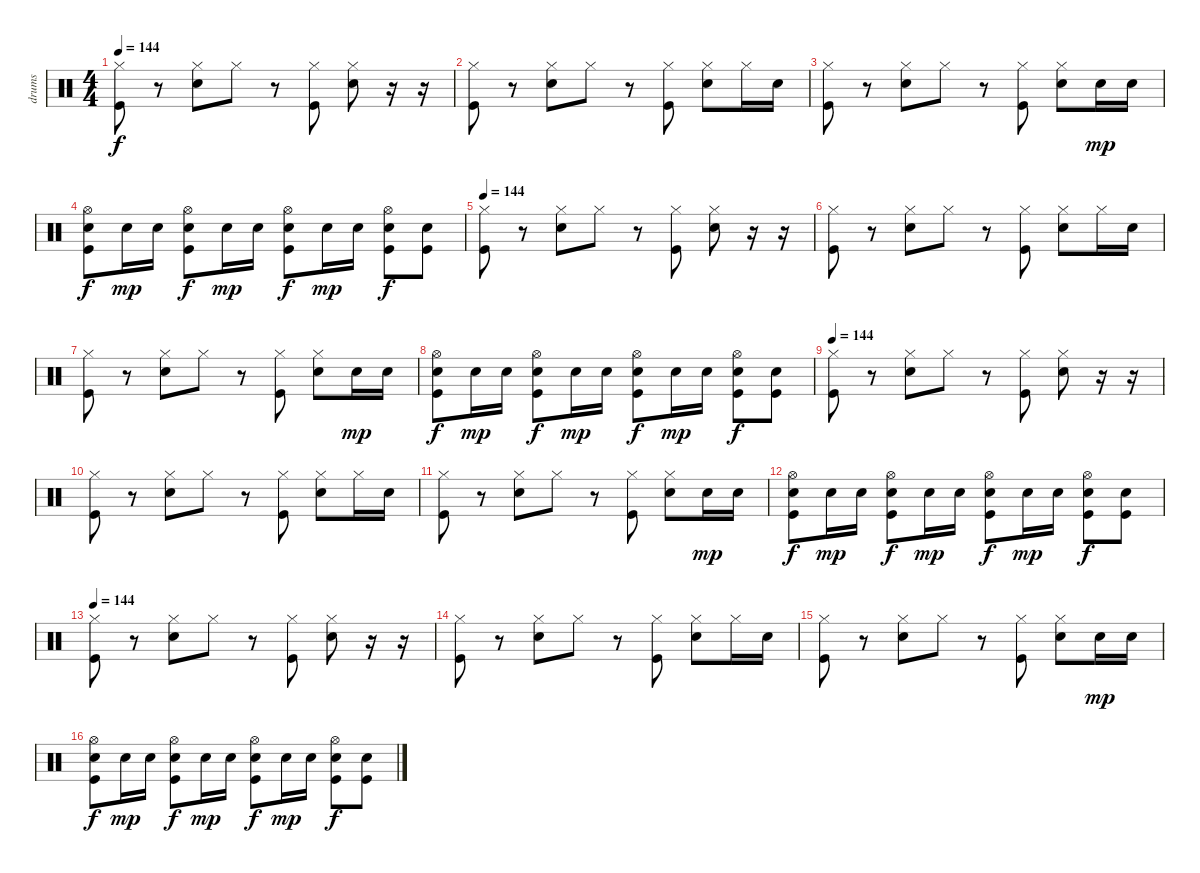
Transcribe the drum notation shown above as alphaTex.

\track ("drums" "drums") {instrument percussion}
\staff {score}
\articulation defaults
\ts (4 4)
\tempo 144
\clef neutral
\ks c
("Hi-Hat (closed)" "Kick (hit)").8{dy f} r.8 ("Hi-Hat (closed)" "Electric Snare (hit)").8 "Hi-Hat (closed)".8 r.8 ("Hi-Hat (closed)" "Kick (hit)").8 ("Hi-Hat (closed)" "Electric Snare (hit)").8 r.16 r.16 |
("Hi-Hat (closed)" "Kick (hit)").8 r.8 ("Hi-Hat (closed)" "Electric Snare (hit)").8 "Hi-Hat (closed)".8 r.8 ("Hi-Hat (closed)" "Kick (hit)").8 ("Hi-Hat (closed)" "Electric Snare (hit)").8 "Hi-Hat (closed)".16 "Electric Snare (hit)".16 |
("Hi-Hat (closed)" "Kick (hit)").8 r.8 ("Hi-Hat (closed)" "Electric Snare (hit)").8 "Hi-Hat (closed)".8 r.8 ("Hi-Hat (closed)" "Kick (hit)").8 ("Hi-Hat (closed)" "Electric Snare (hit)").8 "Electric Snare (hit)".16{dy mp} "Electric Snare (hit)".16 |
("Hi-Hat (open)" "Electric Snare (hit)" "Kick (hit)").8{dy f} "Electric Snare (hit)".16{dy mp} "Electric Snare (hit)".16 ("Hi-Hat (open)" "Electric Snare (hit)" "Kick (hit)").8{dy f} "Electric Snare (hit)".16{dy mp} "Electric Snare (hit)".16 ("Hi-Hat (open)" "Electric Snare (hit)" "Kick (hit)").8{dy f} "Electric Snare (hit)".16{dy mp} "Electric Snare (hit)".16 ("Hi-Hat (open)" "Electric Snare (hit)" "Kick (hit)").8{dy f} ("Electric Snare (hit)" "Kick (hit)").8 |
\tempo 144
("Hi-Hat (closed)" "Kick (hit)").8 r.8 ("Hi-Hat (closed)" "Electric Snare (hit)").8 "Hi-Hat (closed)".8 r.8 ("Hi-Hat (closed)" "Kick (hit)").8 ("Hi-Hat (closed)" "Electric Snare (hit)").8 r.16 r.16 |
("Hi-Hat (closed)" "Kick (hit)").8 r.8 ("Hi-Hat (closed)" "Electric Snare (hit)").8 "Hi-Hat (closed)".8 r.8 ("Hi-Hat (closed)" "Kick (hit)").8 ("Hi-Hat (closed)" "Electric Snare (hit)").8 "Hi-Hat (closed)".16 "Electric Snare (hit)".16 |
("Hi-Hat (closed)" "Kick (hit)").8 r.8 ("Hi-Hat (closed)" "Electric Snare (hit)").8 "Hi-Hat (closed)".8 r.8 ("Hi-Hat (closed)" "Kick (hit)").8 ("Hi-Hat (closed)" "Electric Snare (hit)").8 "Electric Snare (hit)".16{dy mp} "Electric Snare (hit)".16 |
("Hi-Hat (open)" "Electric Snare (hit)" "Kick (hit)").8{dy f} "Electric Snare (hit)".16{dy mp} "Electric Snare (hit)".16 ("Hi-Hat (open)" "Electric Snare (hit)" "Kick (hit)").8{dy f} "Electric Snare (hit)".16{dy mp} "Electric Snare (hit)".16 ("Hi-Hat (open)" "Electric Snare (hit)" "Kick (hit)").8{dy f} "Electric Snare (hit)".16{dy mp} "Electric Snare (hit)".16 ("Hi-Hat (open)" "Electric Snare (hit)" "Kick (hit)").8{dy f} ("Electric Snare (hit)" "Kick (hit)").8 |
\tempo 144
("Hi-Hat (closed)" "Kick (hit)").8 r.8 ("Hi-Hat (closed)" "Electric Snare (hit)").8 "Hi-Hat (closed)".8 r.8 ("Hi-Hat (closed)" "Kick (hit)").8 ("Hi-Hat (closed)" "Electric Snare (hit)").8 r.16 r.16 |
("Hi-Hat (closed)" "Kick (hit)").8 r.8 ("Hi-Hat (closed)" "Electric Snare (hit)").8 "Hi-Hat (closed)".8 r.8 ("Hi-Hat (closed)" "Kick (hit)").8 ("Hi-Hat (closed)" "Electric Snare (hit)").8 "Hi-Hat (closed)".16 "Electric Snare (hit)".16 |
("Hi-Hat (closed)" "Kick (hit)").8 r.8 ("Hi-Hat (closed)" "Electric Snare (hit)").8 "Hi-Hat (closed)".8 r.8 ("Hi-Hat (closed)" "Kick (hit)").8 ("Hi-Hat (closed)" "Electric Snare (hit)").8 "Electric Snare (hit)".16{dy mp} "Electric Snare (hit)".16 |
("Hi-Hat (open)" "Electric Snare (hit)" "Kick (hit)").8{dy f} "Electric Snare (hit)".16{dy mp} "Electric Snare (hit)".16 ("Hi-Hat (open)" "Electric Snare (hit)" "Kick (hit)").8{dy f} "Electric Snare (hit)".16{dy mp} "Electric Snare (hit)".16 ("Hi-Hat (open)" "Electric Snare (hit)" "Kick (hit)").8{dy f} "Electric Snare (hit)".16{dy mp} "Electric Snare (hit)".16 ("Hi-Hat (open)" "Electric Snare (hit)" "Kick (hit)").8{dy f} ("Electric Snare (hit)" "Kick (hit)").8 |
\tempo 144
("Hi-Hat (closed)" "Kick (hit)").8 r.8 ("Hi-Hat (closed)" "Electric Snare (hit)").8 "Hi-Hat (closed)".8 r.8 ("Hi-Hat (closed)" "Kick (hit)").8 ("Hi-Hat (closed)" "Electric Snare (hit)").8 r.16 r.16 |
("Hi-Hat (closed)" "Kick (hit)").8 r.8 ("Hi-Hat (closed)" "Electric Snare (hit)").8 "Hi-Hat (closed)".8 r.8 ("Hi-Hat (closed)" "Kick (hit)").8 ("Hi-Hat (closed)" "Electric Snare (hit)").8 "Hi-Hat (closed)".16 "Electric Snare (hit)".16 |
("Hi-Hat (closed)" "Kick (hit)").8 r.8 ("Hi-Hat (closed)" "Electric Snare (hit)").8 "Hi-Hat (closed)".8 r.8 ("Hi-Hat (closed)" "Kick (hit)").8 ("Hi-Hat (closed)" "Electric Snare (hit)").8 "Electric Snare (hit)".16{dy mp} "Electric Snare (hit)".16 |
("Hi-Hat (open)" "Electric Snare (hit)" "Kick (hit)").8{dy f} "Electric Snare (hit)".16{dy mp} "Electric Snare (hit)".16 ("Hi-Hat (open)" "Electric Snare (hit)" "Kick (hit)").8{dy f} "Electric Snare (hit)".16{dy mp} "Electric Snare (hit)".16 ("Hi-Hat (open)" "Electric Snare (hit)" "Kick (hit)").8{dy f} "Electric Snare (hit)".16{dy mp} "Electric Snare (hit)".16 ("Hi-Hat (open)" "Electric Snare (hit)" "Kick (hit)").8{dy f} ("Electric Snare (hit)" "Kick (hit)").8
